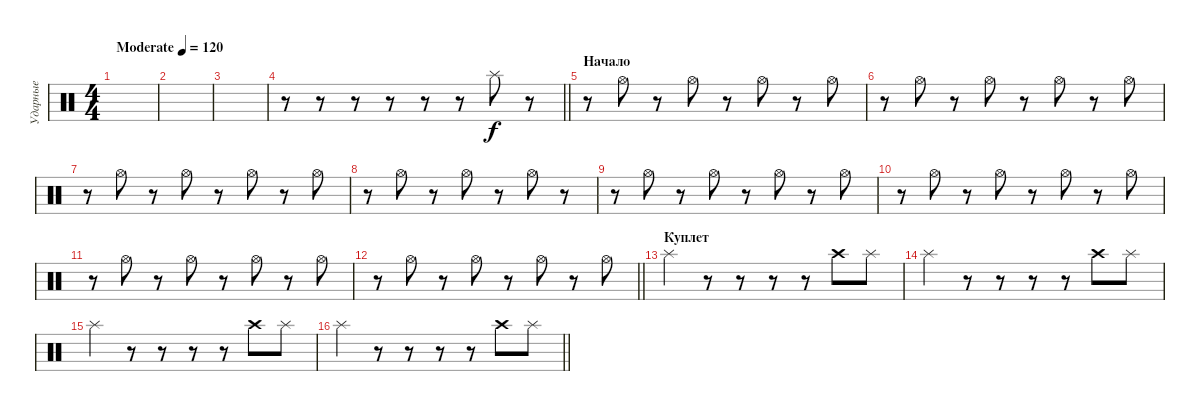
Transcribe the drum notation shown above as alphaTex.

\track ("Ударные" "Ударные") {instrument percussion}
\staff {score}
\articulation defaults
\ts (4 4)
\tempo (120 "Moderate")
\clef neutral
\ks c
|
|
|
\barLineRight lightlight
r.8 r.8 r.8 r.8 r.8 r.8 "Splash (hit)".8 r.8 |
\section ("" "Начало")
r.8 "Hi-Hat (open)".8 r.8 "Hi-Hat (open)".8 r.8 "Hi-Hat (open)".8 r.8 "Hi-Hat (open)".8 |
r.8 "Hi-Hat (open)".8 r.8 "Hi-Hat (open)".8 r.8 "Hi-Hat (open)".8 r.8 "Hi-Hat (open)".8 |
r.8 "Hi-Hat (open)".8 r.8 "Hi-Hat (open)".8 r.8 "Hi-Hat (open)".8 r.8 "Hi-Hat (open)".8 |
r.8 "Hi-Hat (open)".8 r.8 "Hi-Hat (open)".8 r.8 "Hi-Hat (open)".8 r.8 |
r.8 "Hi-Hat (open)".8 r.8 "Hi-Hat (open)".8 r.8 "Hi-Hat (open)".8 r.8 "Hi-Hat (open)".8 |
r.8 "Hi-Hat (open)".8 r.8 "Hi-Hat (open)".8 r.8 "Hi-Hat (open)".8 r.8 "Hi-Hat (open)".8 |
r.8 "Hi-Hat (open)".8 r.8 "Hi-Hat (open)".8 r.8 "Hi-Hat (open)".8 r.8 "Hi-Hat (open)".8 |
\barLineRight lightlight
r.8 "Hi-Hat (open)".8 r.8 "Hi-Hat (open)".8 r.8 "Hi-Hat (open)".8 r.8 "Hi-Hat (open)".8 |
\section ("" "Куплет")
"Splash (hit)".4 r.8 r.8 r.8 r.8 "Crash high (hit)".8 "Splash (hit)".8 |
"Splash (hit)".4 r.8 r.8 r.8 r.8 "Crash high (hit)".8 "Splash (hit)".8 |
"Splash (hit)".4 r.8 r.8 r.8 r.8 "Crash high (hit)".8 "Splash (hit)".8 |
\barLineRight lightlight "Splash (hit)".4
r.8 r.8 r.8 r.8 "Crash high (hit)".8 "Splash (hit)".8
